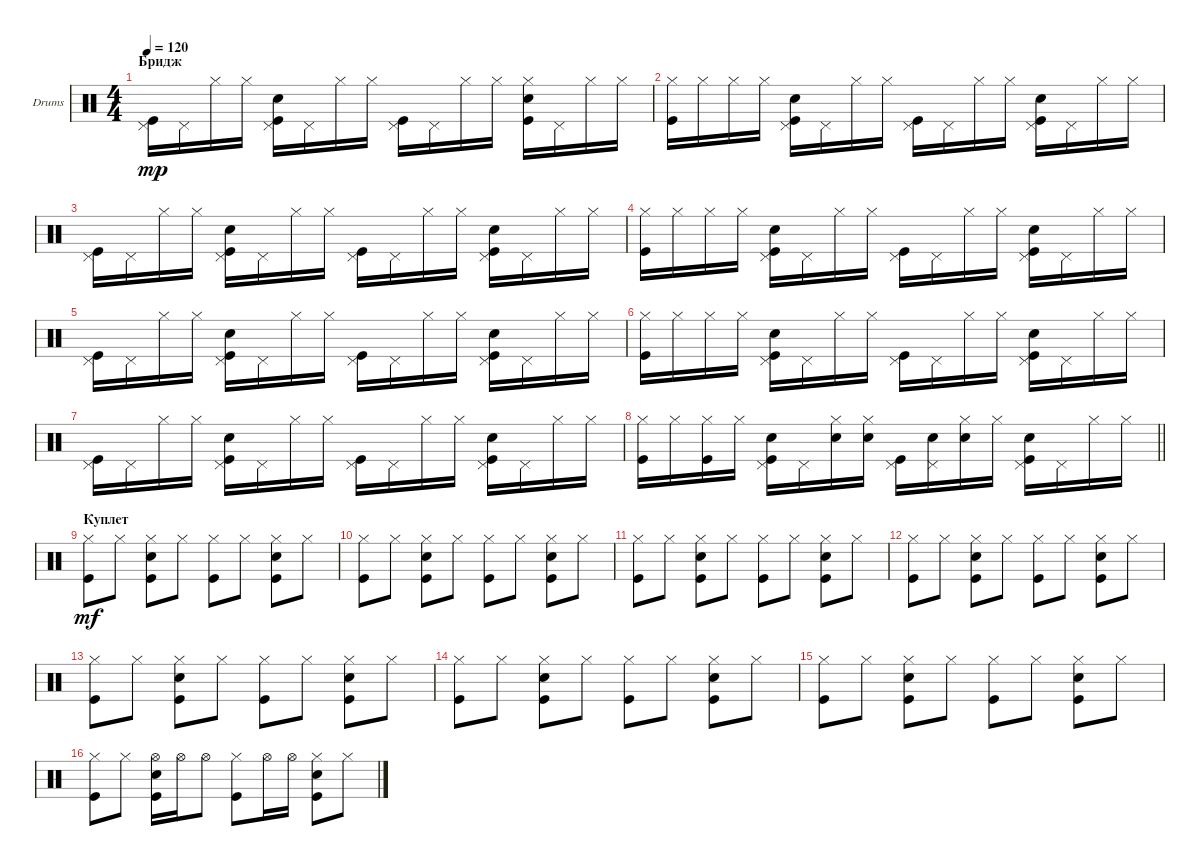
\bracketExtendMode groupsimilarinstruments
\firstSystemTrackNameOrientation horizontal
\otherSystemsTrackNameOrientation horizontal
\track ("Ударные" "Drums") {instrument percussion}
\staff {score}
\articulation defaults
\ts (4 4)
\section ("" "Бридж")
\tempo 120
\clef neutral
\ks c
("Pedal Hi-Hat (hit)" "Kick (hit)").16{dy mp} "Pedal Hi-Hat (hit)".16 "Hi-Hat (closed)".16 "Hi-Hat (closed)".16 ("Pedal Hi-Hat (hit)" "Snare (hit) 2" "Kick (hit)").16 "Pedal Hi-Hat (hit)".16 "Hi-Hat (closed)".16 "Hi-Hat (closed)".16 ("Pedal Hi-Hat (hit)" "Kick (hit)").16 "Pedal Hi-Hat (hit)".16 "Hi-Hat (closed)".16 "Hi-Hat (closed)".16 ("Hi-Hat (closed)" "Snare (hit) 2" "Kick (hit)").16 "Pedal Hi-Hat (hit)".16 "Hi-Hat (closed)".16 "Hi-Hat (closed)".16 |
("Hi-Hat (closed)" "Kick (hit)").16 "Hi-Hat (closed)".16 "Hi-Hat (closed)".16 "Hi-Hat (closed)".16 ("Pedal Hi-Hat (hit)" "Snare (hit) 2" "Kick (hit)").16 "Pedal Hi-Hat (hit)".16 "Hi-Hat (closed)".16 "Hi-Hat (closed)".16 ("Pedal Hi-Hat (hit)" "Kick (hit)").16 "Pedal Hi-Hat (hit)".16 "Hi-Hat (closed)".16 "Hi-Hat (closed)".16 ("Pedal Hi-Hat (hit)" "Snare (hit) 2" "Kick (hit)").16 "Pedal Hi-Hat (hit)".16 "Hi-Hat (closed)".16 "Hi-Hat (closed)".16 |
("Pedal Hi-Hat (hit)" "Kick (hit)").16 "Pedal Hi-Hat (hit)".16 "Hi-Hat (closed)".16 "Hi-Hat (closed)".16 ("Pedal Hi-Hat (hit)" "Snare (hit) 2" "Kick (hit)").16 "Pedal Hi-Hat (hit)".16 "Hi-Hat (closed)".16 "Hi-Hat (closed)".16 ("Pedal Hi-Hat (hit)" "Kick (hit)").16 "Pedal Hi-Hat (hit)".16 "Hi-Hat (closed)".16 "Hi-Hat (closed)".16 ("Pedal Hi-Hat (hit)" "Snare (hit) 2" "Kick (hit)").16 "Pedal Hi-Hat (hit)".16 "Hi-Hat (closed)".16 "Hi-Hat (closed)".16 |
("Hi-Hat (closed)" "Kick (hit)").16 "Hi-Hat (closed)".16 "Hi-Hat (closed)".16 "Hi-Hat (closed)".16 ("Pedal Hi-Hat (hit)" "Snare (hit) 2" "Kick (hit)").16 "Pedal Hi-Hat (hit)".16 "Hi-Hat (closed)".16 "Hi-Hat (closed)".16 ("Pedal Hi-Hat (hit)" "Kick (hit)").16 "Pedal Hi-Hat (hit)".16 "Hi-Hat (closed)".16 "Hi-Hat (closed)".16 ("Pedal Hi-Hat (hit)" "Snare (hit) 2" "Kick (hit)").16 "Pedal Hi-Hat (hit)".16 "Hi-Hat (closed)".16 "Hi-Hat (closed)".16 |
("Pedal Hi-Hat (hit)" "Kick (hit)").16 "Pedal Hi-Hat (hit)".16 "Hi-Hat (closed)".16 "Hi-Hat (closed)".16 ("Pedal Hi-Hat (hit)" "Snare (hit) 2" "Kick (hit)").16 "Pedal Hi-Hat (hit)".16 "Hi-Hat (closed)".16 "Hi-Hat (closed)".16 ("Pedal Hi-Hat (hit)" "Kick (hit)").16 "Pedal Hi-Hat (hit)".16 "Hi-Hat (closed)".16 "Hi-Hat (closed)".16 ("Pedal Hi-Hat (hit)" "Snare (hit) 2" "Kick (hit)").16 "Pedal Hi-Hat (hit)".16 "Hi-Hat (closed)".16 "Hi-Hat (closed)".16 |
("Hi-Hat (closed)" "Kick (hit)").16 "Hi-Hat (closed)".16 "Hi-Hat (closed)".16 "Hi-Hat (closed)".16 ("Pedal Hi-Hat (hit)" "Snare (hit) 2" "Kick (hit)").16 "Pedal Hi-Hat (hit)".16 "Hi-Hat (closed)".16 "Hi-Hat (closed)".16 ("Pedal Hi-Hat (hit)" "Kick (hit)").16 "Pedal Hi-Hat (hit)".16 "Hi-Hat (closed)".16 "Hi-Hat (closed)".16 ("Pedal Hi-Hat (hit)" "Snare (hit) 2" "Kick (hit)").16 "Pedal Hi-Hat (hit)".16 "Hi-Hat (closed)".16 "Hi-Hat (closed)".16 |
("Pedal Hi-Hat (hit)" "Kick (hit)").16 "Pedal Hi-Hat (hit)".16 "Hi-Hat (closed)".16 "Hi-Hat (closed)".16 ("Pedal Hi-Hat (hit)" "Snare (hit) 2" "Kick (hit)").16 "Pedal Hi-Hat (hit)".16 "Hi-Hat (closed)".16 "Hi-Hat (closed)".16 ("Pedal Hi-Hat (hit)" "Kick (hit)").16 "Pedal Hi-Hat (hit)".16 "Hi-Hat (closed)".16 "Hi-Hat (closed)".16 ("Pedal Hi-Hat (hit)" "Snare (hit) 2" "Kick (hit)").16 "Pedal Hi-Hat (hit)".16 "Hi-Hat (closed)".16 "Hi-Hat (closed)".16 |
\barLineRight lightlight
("Hi-Hat (closed)" "Kick (hit)").16 "Hi-Hat (closed)".16 ("Hi-Hat (closed)" "Kick (hit)").16 "Hi-Hat (closed)".16 ("Pedal Hi-Hat (hit)" "Snare (hit) 2" "Kick (hit)").16 "Pedal Hi-Hat (hit)".16 ("Hi-Hat (closed)" "Snare (hit) 2").16 ("Hi-Hat (closed)" "Snare (hit) 2").16 ("Pedal Hi-Hat (hit)" "Kick (hit)").16 ("Pedal Hi-Hat (hit)" "Snare (hit) 2").16 ("Hi-Hat (closed)" "Snare (hit) 2").16 "Hi-Hat (closed)".16 ("Pedal Hi-Hat (hit)" "Snare (hit) 2" "Kick (hit)").16 "Pedal Hi-Hat (hit)".16 "Hi-Hat (closed)".16 "Hi-Hat (closed)".16 |
\section ("" "Куплет")
("Hi-Hat (closed)" "Kick (hit)").8{dy mf} "Hi-Hat (closed)".8 ("Hi-Hat (closed)" "Snare (hit) 2" "Kick (hit)").8 "Hi-Hat (closed)".8 ("Hi-Hat (closed)" "Kick (hit)").8 "Hi-Hat (closed)".8 ("Hi-Hat (closed)" "Snare (hit) 2" "Kick (hit)").8 "Hi-Hat (closed)".8 |
("Hi-Hat (closed)" "Kick (hit)").8 "Hi-Hat (closed)".8 ("Hi-Hat (closed)" "Snare (hit) 2" "Kick (hit)").8 "Hi-Hat (closed)".8 ("Hi-Hat (closed)" "Kick (hit)").8 "Hi-Hat (closed)".8 ("Hi-Hat (closed)" "Snare (hit) 2" "Kick (hit)").8 "Hi-Hat (closed)".8 |
("Hi-Hat (closed)" "Kick (hit)").8 "Hi-Hat (closed)".8 ("Hi-Hat (closed)" "Snare (hit) 2" "Kick (hit)").8 "Hi-Hat (closed)".8 ("Hi-Hat (closed)" "Kick (hit)").8 "Hi-Hat (closed)".8 ("Hi-Hat (closed)" "Snare (hit) 2" "Kick (hit)").8 "Hi-Hat (closed)".8 |
("Hi-Hat (closed)" "Kick (hit)").8 "Hi-Hat (closed)".8 ("Hi-Hat (closed)" "Snare (hit) 2" "Kick (hit)").8 "Hi-Hat (closed)".8 ("Hi-Hat (closed)" "Kick (hit)").8 "Hi-Hat (closed)".8 ("Hi-Hat (closed)" "Snare (hit) 2" "Kick (hit)").8 "Hi-Hat (closed)".8 |
("Hi-Hat (closed)" "Kick (hit)").8 "Hi-Hat (closed)".8 ("Hi-Hat (closed)" "Snare (hit) 2" "Kick (hit)").8 "Hi-Hat (closed)".8 ("Hi-Hat (closed)" "Kick (hit)").8 "Hi-Hat (closed)".8 ("Hi-Hat (closed)" "Snare (hit) 2" "Kick (hit)").8 "Hi-Hat (closed)".8 |
("Hi-Hat (closed)" "Kick (hit)").8 "Hi-Hat (closed)".8 ("Hi-Hat (closed)" "Snare (hit) 2" "Kick (hit)").8 "Hi-Hat (closed)".8 ("Hi-Hat (closed)" "Kick (hit)").8 "Hi-Hat (closed)".8 ("Hi-Hat (closed)" "Snare (hit) 2" "Kick (hit)").8 "Hi-Hat (closed)".8 |
("Hi-Hat (closed)" "Kick (hit)").8 "Hi-Hat (closed)".8 ("Hi-Hat (closed)" "Snare (hit) 2" "Kick (hit)").8 "Hi-Hat (closed)".8 ("Hi-Hat (closed)" "Kick (hit)").8 "Hi-Hat (closed)".8 ("Hi-Hat (closed)" "Snare (hit) 2" "Kick (hit)").8 "Hi-Hat (closed)".8 |
("Hi-Hat (closed)" "Kick (hit)").8 "Hi-Hat (closed)".8 ("Hi-Hat (open)" "Snare (hit) 2" "Kick (hit)").16 "Hi-Hat (open)".16 "Hi-Hat (open)".8 ("Hi-Hat (closed)" "Kick (hit)").8 "Hi-Hat (open)".16 "Hi-Hat (open)".16 ("Hi-Hat (closed)" "Snare (hit) 2" "Kick (hit)").8 "Hi-Hat (closed)".8
